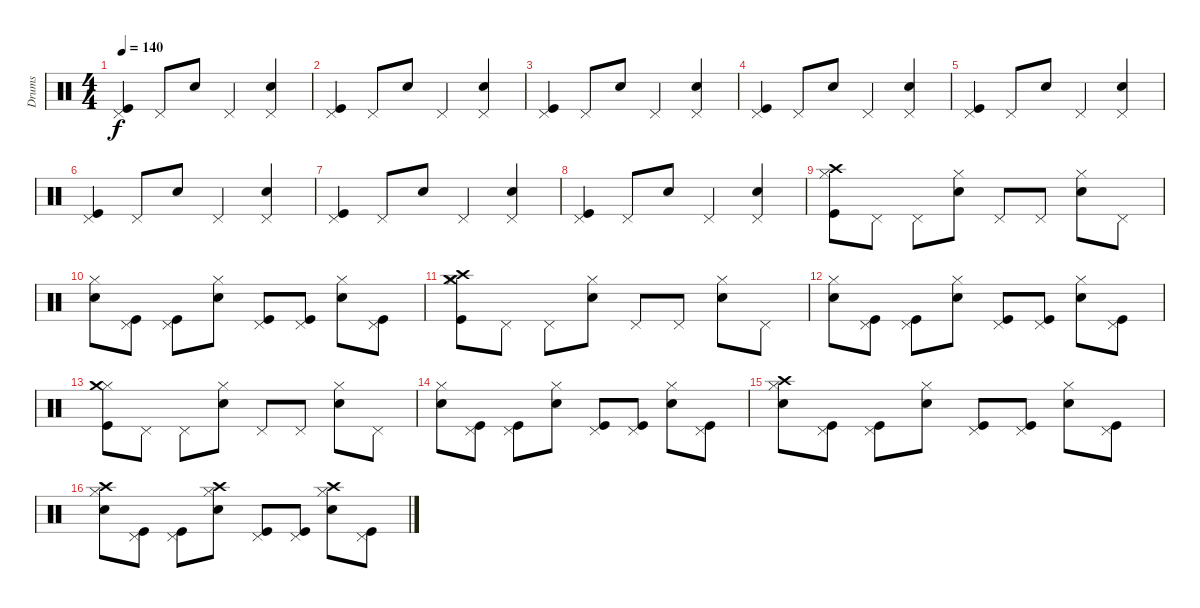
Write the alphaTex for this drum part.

\track ("Drums" "Drums") {instrument percussion}
\staff {score}
\articulation defaults
\ts (4 4)
\tempo 140
\clef neutral
\ks c
("Pedal Hi-Hat (hit)" "Kick (hit)").4{dy f} "Pedal Hi-Hat (hit)".8 "Electric Snare (hit)".8 "Pedal Hi-Hat (hit)".4 ("Electric Snare (hit)" "Pedal Hi-Hat (hit)").4 |
("Pedal Hi-Hat (hit)" "Kick (hit)").4 "Pedal Hi-Hat (hit)".8 "Electric Snare (hit)".8 "Pedal Hi-Hat (hit)".4 ("Pedal Hi-Hat (hit)" "Electric Snare (hit)").4 |
("Pedal Hi-Hat (hit)" "Kick (hit)").4 "Pedal Hi-Hat (hit)".8 "Electric Snare (hit)".8 "Pedal Hi-Hat (hit)".4 ("Pedal Hi-Hat (hit)" "Electric Snare (hit)").4 |
("Pedal Hi-Hat (hit)" "Kick (hit)").4 "Pedal Hi-Hat (hit)".8 "Electric Snare (hit)".8 "Pedal Hi-Hat (hit)".4 ("Pedal Hi-Hat (hit)" "Electric Snare (hit)").4 |
("Pedal Hi-Hat (hit)" "Kick (hit)").4 "Pedal Hi-Hat (hit)".8 "Electric Snare (hit)".8 "Pedal Hi-Hat (hit)".4 ("Electric Snare (hit)" "Pedal Hi-Hat (hit)").4 |
("Pedal Hi-Hat (hit)" "Kick (hit)").4 "Pedal Hi-Hat (hit)".8 "Electric Snare (hit)".8 "Pedal Hi-Hat (hit)".4 ("Pedal Hi-Hat (hit)" "Electric Snare (hit)").4 |
("Pedal Hi-Hat (hit)" "Kick (hit)").4 "Pedal Hi-Hat (hit)".8 "Electric Snare (hit)".8 "Pedal Hi-Hat (hit)".4 ("Pedal Hi-Hat (hit)" "Electric Snare (hit)").4 |
("Pedal Hi-Hat (hit)" "Kick (hit)").4 "Pedal Hi-Hat (hit)".8 "Electric Snare (hit)".8 "Pedal Hi-Hat (hit)".4 ("Pedal Hi-Hat (hit)" "Electric Snare (hit)").4 |
("Crash high (hit)" "Hi-Hat (closed)" "Kick (hit)").8 "Pedal Hi-Hat (hit)".8 "Pedal Hi-Hat (hit)".8 ("Hi-Hat (closed)" "Electric Snare (hit)").8 "Pedal Hi-Hat (hit)".8 "Pedal Hi-Hat (hit)".8 ("Electric Snare (hit)" "Hi-Hat (closed)").8 "Pedal Hi-Hat (hit)".8 |
("Hi-Hat (closed)" "Electric Snare (hit)").8 ("Pedal Hi-Hat (hit)" "Kick (hit)").8 ("Pedal Hi-Hat (hit)" "Kick (hit)").8 ("Electric Snare (hit)" "Hi-Hat (closed)").8 ("Pedal Hi-Hat (hit)" "Kick (hit)").8 ("Pedal Hi-Hat (hit)" "Kick (hit)").8 ("Electric Snare (hit)" "Hi-Hat (closed)").8 ("Pedal Hi-Hat (hit)" "Kick (hit)").8 |
("Crash high (hit)" "Crash medium (hit)" "Hi-Hat (closed)" "Kick (hit)").8 "Pedal Hi-Hat (hit)".8 "Pedal Hi-Hat (hit)".8 ("Hi-Hat (closed)" "Electric Snare (hit)").8 "Pedal Hi-Hat (hit)".8 "Pedal Hi-Hat (hit)".8 ("Electric Snare (hit)" "Hi-Hat (closed)").8 "Pedal Hi-Hat (hit)".8 |
("Hi-Hat (closed)" "Electric Snare (hit)").8 ("Pedal Hi-Hat (hit)" "Kick (hit)").8 ("Pedal Hi-Hat (hit)" "Kick (hit)").8 ("Electric Snare (hit)" "Hi-Hat (closed)").8 ("Pedal Hi-Hat (hit)" "Kick (hit)").8 ("Pedal Hi-Hat (hit)" "Kick (hit)").8 ("Electric Snare (hit)" "Hi-Hat (closed)").8 ("Pedal Hi-Hat (hit)" "Kick (hit)").8 |
("Hi-Hat (closed)" "Kick (hit)" "Crash medium (hit)").8 "Pedal Hi-Hat (hit)".8 "Pedal Hi-Hat (hit)".8 ("Hi-Hat (closed)" "Electric Snare (hit)").8 "Pedal Hi-Hat (hit)".8 "Pedal Hi-Hat (hit)".8 ("Electric Snare (hit)" "Hi-Hat (closed)").8 "Pedal Hi-Hat (hit)".8 |
("Hi-Hat (closed)" "Electric Snare (hit)").8 ("Pedal Hi-Hat (hit)" "Kick (hit)").8 ("Pedal Hi-Hat (hit)" "Kick (hit)").8 ("Electric Snare (hit)" "Hi-Hat (closed)").8 ("Pedal Hi-Hat (hit)" "Kick (hit)").8 ("Pedal Hi-Hat (hit)" "Kick (hit)").8 ("Electric Snare (hit)" "Hi-Hat (closed)").8 ("Pedal Hi-Hat (hit)" "Kick (hit)").8 |
("Crash high (hit)" "Hi-Hat (closed)" "Electric Snare (hit)").8 ("Pedal Hi-Hat (hit)" "Kick (hit)").8 ("Pedal Hi-Hat (hit)" "Kick (hit)").8 ("Electric Snare (hit)" "Hi-Hat (closed)").8 ("Pedal Hi-Hat (hit)" "Kick (hit)").8 ("Pedal Hi-Hat (hit)" "Kick (hit)").8 ("Electric Snare (hit)" "Hi-Hat (closed)").8 ("Pedal Hi-Hat (hit)" "Kick (hit)").8 |
("Crash high (hit)" "Hi-Hat (closed)" "Electric Snare (hit)").8 ("Pedal Hi-Hat (hit)" "Kick (hit)").8 ("Pedal Hi-Hat (hit)" "Kick (hit)").8 ("Crash high (hit)" "Electric Snare (hit)" "Hi-Hat (closed)").8 ("Pedal Hi-Hat (hit)" "Kick (hit)").8 ("Pedal Hi-Hat (hit)" "Kick (hit)").8 ("Crash high (hit)" "Electric Snare (hit)" "Hi-Hat (closed)").8 ("Pedal Hi-Hat (hit)" "Kick (hit)").8
